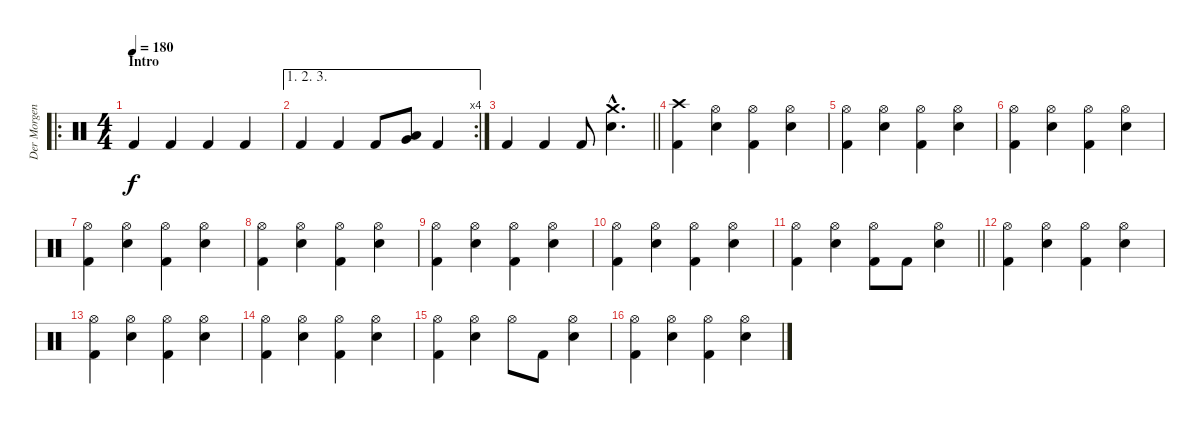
\track ("Der Morgenstern" "Der Morgen") {instrument percussion}
\staff {score}
\articulation defaults
\ro
\ts (4 4)
\section ("" "Intro")
\tempo 180
\clef neutral
\ks c "Kick (hit) 2".4{dy f} "Kick (hit) 2".4 "Kick (hit) 2".4 "Kick (hit) 2".4
|
\ae (1 2 3)
\rc 4 "Kick (hit) 2".4 "Kick (hit) 2".4 "Kick (hit) 2".8
("Very Low Tom (hit)" "Low Floor Tom (hit)").8 "Kick (hit) 2".4 |
\barLineRight lightlight "Kick (hit) 2".4 "Kick (hit) 2".4 "Kick (hit) 2".8
("Crash medium (hit)"{hac} "Electric Snare (hit)"{hac}).4{d} |
("Crash high (hit)" "Kick (hit) 2").4 ("Hi-Hat (open)" "Electric Snare (hit)").4 ("Hi-Hat (open)" "Kick (hit) 2").4 ("Hi-Hat (open)" "Electric Snare (hit)").4 |
("Hi-Hat (open)" "Kick (hit) 2").4 ("Hi-Hat (open)" "Electric Snare (hit)").4 ("Hi-Hat (open)" "Kick (hit) 2").4 ("Hi-Hat (open)" "Electric Snare (hit)").4 |
("Hi-Hat (open)" "Kick (hit) 2").4 ("Hi-Hat (open)" "Electric Snare (hit)").4 ("Hi-Hat (open)" "Kick (hit) 2").4 ("Hi-Hat (open)" "Electric Snare (hit)").4 |
("Hi-Hat (open)" "Kick (hit) 2").4 ("Hi-Hat (open)" "Electric Snare (hit)").4 ("Hi-Hat (open)" "Kick (hit) 2").4 ("Hi-Hat (open)" "Electric Snare (hit)").4 |
("Hi-Hat (open)" "Kick (hit) 2").4 ("Hi-Hat (open)" "Electric Snare (hit)").4 ("Hi-Hat (open)" "Kick (hit) 2").4 ("Hi-Hat (open)" "Electric Snare (hit)").4 |
("Hi-Hat (open)" "Kick (hit) 2").4 ("Hi-Hat (open)" "Electric Snare (hit)").4 ("Hi-Hat (open)" "Kick (hit) 2").4 ("Hi-Hat (open)" "Electric Snare (hit)").4 |
("Hi-Hat (open)" "Kick (hit) 2").4 ("Hi-Hat (open)" "Electric Snare (hit)").4 ("Hi-Hat (open)" "Kick (hit) 2").4 ("Hi-Hat (open)" "Electric Snare (hit)").4 |
\barLineRight lightlight
("Hi-Hat (open)" "Kick (hit) 2").4 ("Hi-Hat (open)" "Electric Snare (hit)").4 ("Hi-Hat (open)" "Kick (hit) 2").8 "Kick (hit) 2".8 ("Hi-Hat (open)" "Electric Snare (hit)").4 |
("Hi-Hat (open)" "Kick (hit) 2").4 ("Hi-Hat (open)" "Electric Snare (hit)").4 ("Hi-Hat (open)" "Kick (hit) 2").4 ("Hi-Hat (open)" "Electric Snare (hit)").4 |
("Hi-Hat (open)" "Kick (hit) 2").4 ("Hi-Hat (open)" "Electric Snare (hit)").4 ("Hi-Hat (open)" "Kick (hit) 2").4 ("Hi-Hat (open)" "Electric Snare (hit)").4 |
("Hi-Hat (open)" "Kick (hit) 2").4 ("Hi-Hat (open)" "Electric Snare (hit)").4 ("Hi-Hat (open)" "Kick (hit) 2").4 ("Hi-Hat (open)" "Electric Snare (hit)").4 |
("Hi-Hat (open)" "Kick (hit) 2").4 ("Hi-Hat (open)" "Electric Snare (hit)").4 "Hi-Hat (open)".8 "Kick (hit) 2".8 ("Hi-Hat (open)" "Electric Snare (hit)").4 |
("Hi-Hat (open)" "Kick (hit) 2").4 ("Hi-Hat (open)" "Electric Snare (hit)").4 ("Hi-Hat (open)" "Kick (hit) 2").4 ("Hi-Hat (open)" "Electric Snare (hit)").4
